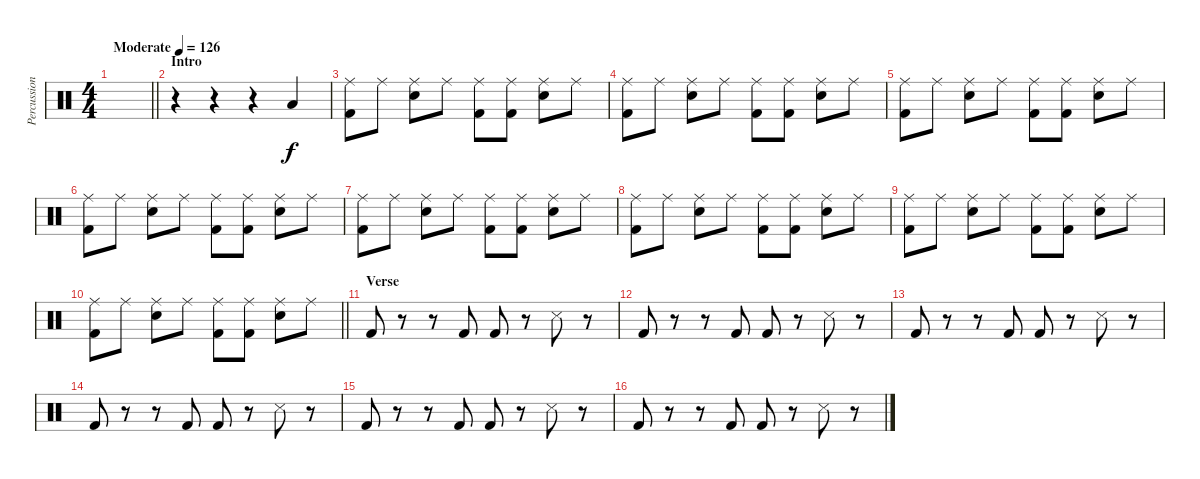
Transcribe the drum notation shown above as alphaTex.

\track ("Percussions" "Percussion") {instrument percussion}
\staff {score}
\articulation defaults
\ts (4 4)
\tempo (126 "Moderate")
\clef neutral
\barLineRight lightlight
\ks c
|
\section ("" "Intro")
r.4 r.4 r.4 "Low Tom (hit)".4 |
("Ride (middle)" "Kick (hit) 2").8 "Ride (middle)".8 ("Ride (middle)" "Snare (hit) 2").8 "Ride (middle)".8 ("Ride (middle)" "Kick (hit) 2").8 ("Ride (middle)" "Kick (hit) 2").8 ("Ride (middle)" "Snare (hit) 2").8 "Ride (middle)".8 |
("Ride (middle)" "Kick (hit) 2").8 "Ride (middle)".8 ("Ride (middle)" "Snare (hit) 2").8 "Ride (middle)".8 ("Ride (middle)" "Kick (hit) 2").8 ("Ride (middle)" "Kick (hit) 2").8 ("Ride (middle)" "Snare (hit) 2").8 "Ride (middle)".8 |
("Ride (middle)" "Kick (hit) 2").8 "Ride (middle)".8 ("Ride (middle)" "Snare (hit) 2").8 "Ride (middle)".8 ("Ride (middle)" "Kick (hit) 2").8 ("Ride (middle)" "Kick (hit) 2").8 ("Ride (middle)" "Snare (hit) 2").8 "Ride (middle)".8 |
("Ride (middle)" "Kick (hit) 2").8 "Ride (middle)".8 ("Ride (middle)" "Snare (hit) 2").8 "Ride (middle)".8 ("Ride (middle)" "Kick (hit) 2").8 ("Ride (middle)" "Kick (hit) 2").8 ("Ride (middle)" "Snare (hit) 2").8 "Ride (middle)".8 |
("Ride (middle)" "Kick (hit) 2").8 "Ride (middle)".8 ("Ride (middle)" "Snare (hit) 2").8 "Ride (middle)".8 ("Ride (middle)" "Kick (hit) 2").8 ("Ride (middle)" "Kick (hit) 2").8 ("Ride (middle)" "Snare (hit) 2").8 "Ride (middle)".8 |
("Ride (middle)" "Kick (hit) 2").8 "Ride (middle)".8 ("Ride (middle)" "Snare (hit) 2").8 "Ride (middle)".8 ("Ride (middle)" "Kick (hit) 2").8 ("Ride (middle)" "Kick (hit) 2").8 ("Ride (middle)" "Snare (hit) 2").8 "Ride (middle)".8 |
("Ride (middle)" "Kick (hit) 2").8 "Ride (middle)".8 ("Ride (middle)" "Snare (hit) 2").8 "Ride (middle)".8 ("Ride (middle)" "Kick (hit) 2").8 ("Ride (middle)" "Kick (hit) 2").8 ("Ride (middle)" "Snare (hit) 2").8 "Ride (middle)".8 |
\barLineRight lightlight
("Ride (middle)" "Kick (hit) 2").8 "Ride (middle)".8 ("Ride (middle)" "Snare (hit) 2").8 "Ride (middle)".8 ("Ride (middle)" "Kick (hit) 2").8 ("Ride (middle)" "Kick (hit) 2").8 ("Ride (middle)" "Snare (hit) 2").8 "Ride (middle)".8 |
\section ("" "Verse")
"Kick (hit) 2".8 r.8 r.8 "Kick (hit) 2".8 "Kick (hit) 2".8 r.8 "Snare (side stick) 3".8 r.8 |
"Kick (hit) 2".8 r.8 r.8 "Kick (hit) 2".8 "Kick (hit) 2".8 r.8 "Snare (side stick) 3".8 r.8 |
"Kick (hit) 2".8 r.8 r.8 "Kick (hit) 2".8 "Kick (hit) 2".8 r.8 "Snare (side stick) 3".8 r.8 |
"Kick (hit) 2".8 r.8 r.8 "Kick (hit) 2".8 "Kick (hit) 2".8 r.8 "Snare (side stick) 3".8 r.8 |
"Kick (hit) 2".8 r.8 r.8 "Kick (hit) 2".8 "Kick (hit) 2".8 r.8 "Snare (side stick) 3".8 r.8 |
"Kick (hit) 2".8 r.8 r.8 "Kick (hit) 2".8 "Kick (hit) 2".8 r.8 "Snare (side stick) 3".8 r.8
